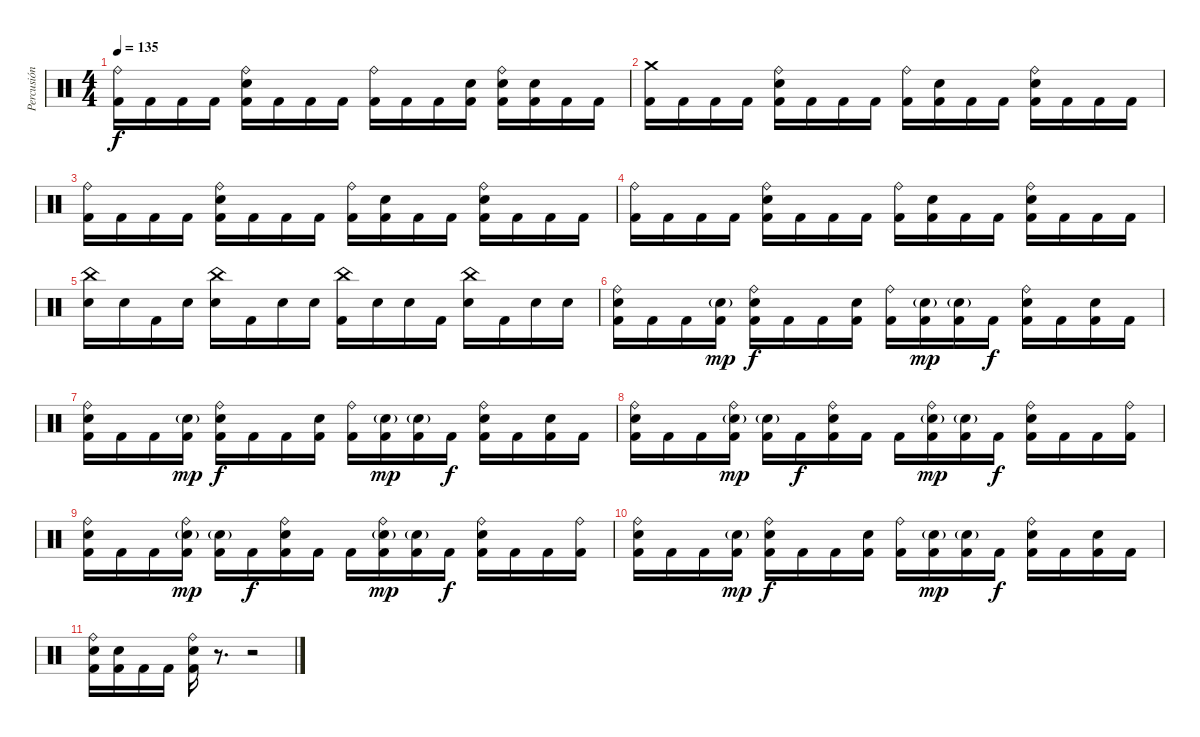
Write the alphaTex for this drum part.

\track ("Percusión" "Percusión") {instrument percussion}
\staff {score}
\articulation defaults
\ts (4 4)
\tempo 135
\clef neutral
\ks c
("Ride (bell)" "Kick (hit) 2").16{dy f} "Kick (hit) 2".16 "Kick (hit) 2".16 "Kick (hit) 2".16 ("Ride (bell)" "Electric Snare (hit)" "Kick (hit) 2").16 "Kick (hit) 2".16 "Kick (hit) 2".16 "Kick (hit) 2".16 ("Ride (bell)" "Kick (hit) 2").16 "Kick (hit) 2".16 "Kick (hit) 2".16 ("Electric Snare (hit)" "Kick (hit) 2").16 ("Ride (bell)" "Electric Snare (hit)" "Kick (hit) 2").16 ("Electric Snare (hit)" "Kick (hit) 2").16 "Kick (hit) 2".16 "Kick (hit) 2".16 |
("Crash medium (hit)" "Kick (hit) 2").16 "Kick (hit) 2".16 "Kick (hit) 2".16 "Kick (hit) 2".16 ("Ride (bell)" "Electric Snare (hit)" "Kick (hit) 2").16 "Kick (hit) 2".16 "Kick (hit) 2".16 "Kick (hit) 2".16 ("Ride (bell)" "Kick (hit) 2").16 ("Electric Snare (hit)" "Kick (hit) 2").16 "Kick (hit) 2".16 "Kick (hit) 2".16 ("Ride (bell)" "Electric Snare (hit)" "Kick (hit) 2").16 "Kick (hit) 2".16 "Kick (hit) 2".16 "Kick (hit) 2".16 |
("Ride (bell)" "Kick (hit) 2").16 "Kick (hit) 2".16 "Kick (hit) 2".16 "Kick (hit) 2".16 ("Ride (bell)" "Electric Snare (hit)" "Kick (hit) 2").16 "Kick (hit) 2".16 "Kick (hit) 2".16 "Kick (hit) 2".16 ("Ride (bell)" "Kick (hit) 2").16 ("Electric Snare (hit)" "Kick (hit) 2").16 "Kick (hit) 2".16 "Kick (hit) 2".16 ("Ride (bell)" "Electric Snare (hit)" "Kick (hit) 2").16 "Kick (hit) 2".16 "Kick (hit) 2".16 "Kick (hit) 2".16 |
("Ride (bell)" "Kick (hit) 2").16 "Kick (hit) 2".16 "Kick (hit) 2".16 "Kick (hit) 2".16 ("Ride (bell)" "Electric Snare (hit)" "Kick (hit) 2").16 "Kick (hit) 2".16 "Kick (hit) 2".16 "Kick (hit) 2".16 ("Ride (bell)" "Kick (hit) 2").16 ("Electric Snare (hit)" "Kick (hit) 2").16 "Kick (hit) 2".16 "Kick (hit) 2".16 ("Ride (bell)" "Electric Snare (hit)" "Kick (hit) 2").16 "Kick (hit) 2".16 "Kick (hit) 2".16 "Kick (hit) 2".16 |
("China (hit)" "Electric Snare (hit)").16 "Electric Snare (hit)".16 "Kick (hit) 2".16 "Electric Snare (hit)".16 ("China (hit)" "Electric Snare (hit)").16 "Kick (hit) 2".16 "Electric Snare (hit)".16 "Electric Snare (hit)".16 ("China (hit)" "Kick (hit) 2").16 "Electric Snare (hit)".16 "Electric Snare (hit)".16 "Kick (hit) 2".16 ("China (hit)" "Electric Snare (hit)").16 "Kick (hit) 2".16 "Electric Snare (hit)".16 "Electric Snare (hit)".16 |
("Ride (bell)" "Electric Snare (hit)" "Kick (hit) 2").16 "Kick (hit) 2".16 "Kick (hit) 2".16 ("Electric Snare (hit)"{g} "Kick (hit) 2").16{dy mp} ("Ride (bell)" "Electric Snare (hit)" "Kick (hit) 2").16{dy f} "Kick (hit) 2".16 "Kick (hit) 2".16 ("Electric Snare (hit)" "Kick (hit) 2").16 ("Ride (bell)" "Kick (hit) 2").16 ("Electric Snare (hit)"{g} "Kick (hit) 2").16{dy mp} ("Electric Snare (hit)"{g} "Kick (hit) 2").16 "Kick (hit) 2".16{dy f} ("Ride (bell)" "Electric Snare (hit)" "Kick (hit) 2").16 "Kick (hit) 2".16 ("Electric Snare (hit)" "Kick (hit) 2").16 "Kick (hit) 2".16 |
("Ride (bell)" "Electric Snare (hit)" "Kick (hit) 2").16 "Kick (hit) 2".16 "Kick (hit) 2".16 ("Electric Snare (hit)"{g} "Kick (hit) 2").16{dy mp} ("Ride (bell)" "Electric Snare (hit)" "Kick (hit) 2").16{dy f} "Kick (hit) 2".16 "Kick (hit) 2".16 ("Electric Snare (hit)" "Kick (hit) 2").16 ("Ride (bell)" "Kick (hit) 2").16 ("Electric Snare (hit)"{g} "Kick (hit) 2").16{dy mp} ("Electric Snare (hit)"{g} "Kick (hit) 2").16 "Kick (hit) 2".16{dy f} ("Ride (bell)" "Electric Snare (hit)" "Kick (hit) 2").16 "Kick (hit) 2".16 ("Electric Snare (hit)" "Kick (hit) 2").16 "Kick (hit) 2".16 |
("Ride (bell)" "Electric Snare (hit)" "Kick (hit) 2").16 "Kick (hit) 2".16 "Kick (hit) 2".16 ("Ride (bell)" "Electric Snare (hit)"{g} "Kick (hit) 2").16{dy mp} ("Electric Snare (hit)"{g} "Kick (hit) 2").16 "Kick (hit) 2".16{dy f} ("Ride (bell)" "Electric Snare (hit)" "Kick (hit) 2").16 "Kick (hit) 2".16 "Kick (hit) 2".16 ("Ride (bell)" "Electric Snare (hit)"{g} "Kick (hit) 2").16{dy mp} ("Electric Snare (hit)"{g} "Kick (hit) 2").16 "Kick (hit) 2".16{dy f} ("Ride (bell)" "Electric Snare (hit)" "Kick (hit) 2").16 "Kick (hit) 2".16 "Kick (hit) 2".16 ("Ride (bell)" "Kick (hit) 2").16 |
("Ride (bell)" "Electric Snare (hit)" "Kick (hit) 2").16 "Kick (hit) 2".16 "Kick (hit) 2".16 ("Ride (bell)" "Electric Snare (hit)"{g} "Kick (hit) 2").16{dy mp} ("Electric Snare (hit)"{g} "Kick (hit) 2").16 "Kick (hit) 2".16{dy f} ("Ride (bell)" "Electric Snare (hit)" "Kick (hit) 2").16 "Kick (hit) 2".16 "Kick (hit) 2".16 ("Ride (bell)" "Electric Snare (hit)"{g} "Kick (hit) 2").16{dy mp} ("Electric Snare (hit)"{g} "Kick (hit) 2").16 "Kick (hit) 2".16{dy f} ("Ride (bell)" "Electric Snare (hit)" "Kick (hit) 2").16 "Kick (hit) 2".16 "Kick (hit) 2".16 ("Ride (bell)" "Kick (hit) 2").16 |
("Ride (bell)" "Electric Snare (hit)" "Kick (hit) 2").16 "Kick (hit) 2".16 "Kick (hit) 2".16 ("Electric Snare (hit)"{g} "Kick (hit) 2").16{dy mp} ("Ride (bell)" "Electric Snare (hit)" "Kick (hit) 2").16{dy f} "Kick (hit) 2".16 "Kick (hit) 2".16 ("Electric Snare (hit)" "Kick (hit) 2").16 ("Ride (bell)" "Kick (hit) 2").16 ("Electric Snare (hit)"{g} "Kick (hit) 2").16{dy mp} ("Electric Snare (hit)"{g} "Kick (hit) 2").16 "Kick (hit) 2".16{dy f} ("Ride (bell)" "Electric Snare (hit)" "Kick (hit) 2").16 "Kick (hit) 2".16 ("Electric Snare (hit)" "Kick (hit) 2").16 "Kick (hit) 2".16 |
("Ride (bell)" "Electric Snare (hit)" "Kick (hit) 2").16 ("Electric Snare (hit)" "Kick (hit) 2").16 "Kick (hit) 2".16 "Kick (hit) 2".16 ("Ride (bell)" "Electric Snare (hit)" "Kick (hit) 2").16 r.8{d} r.2
